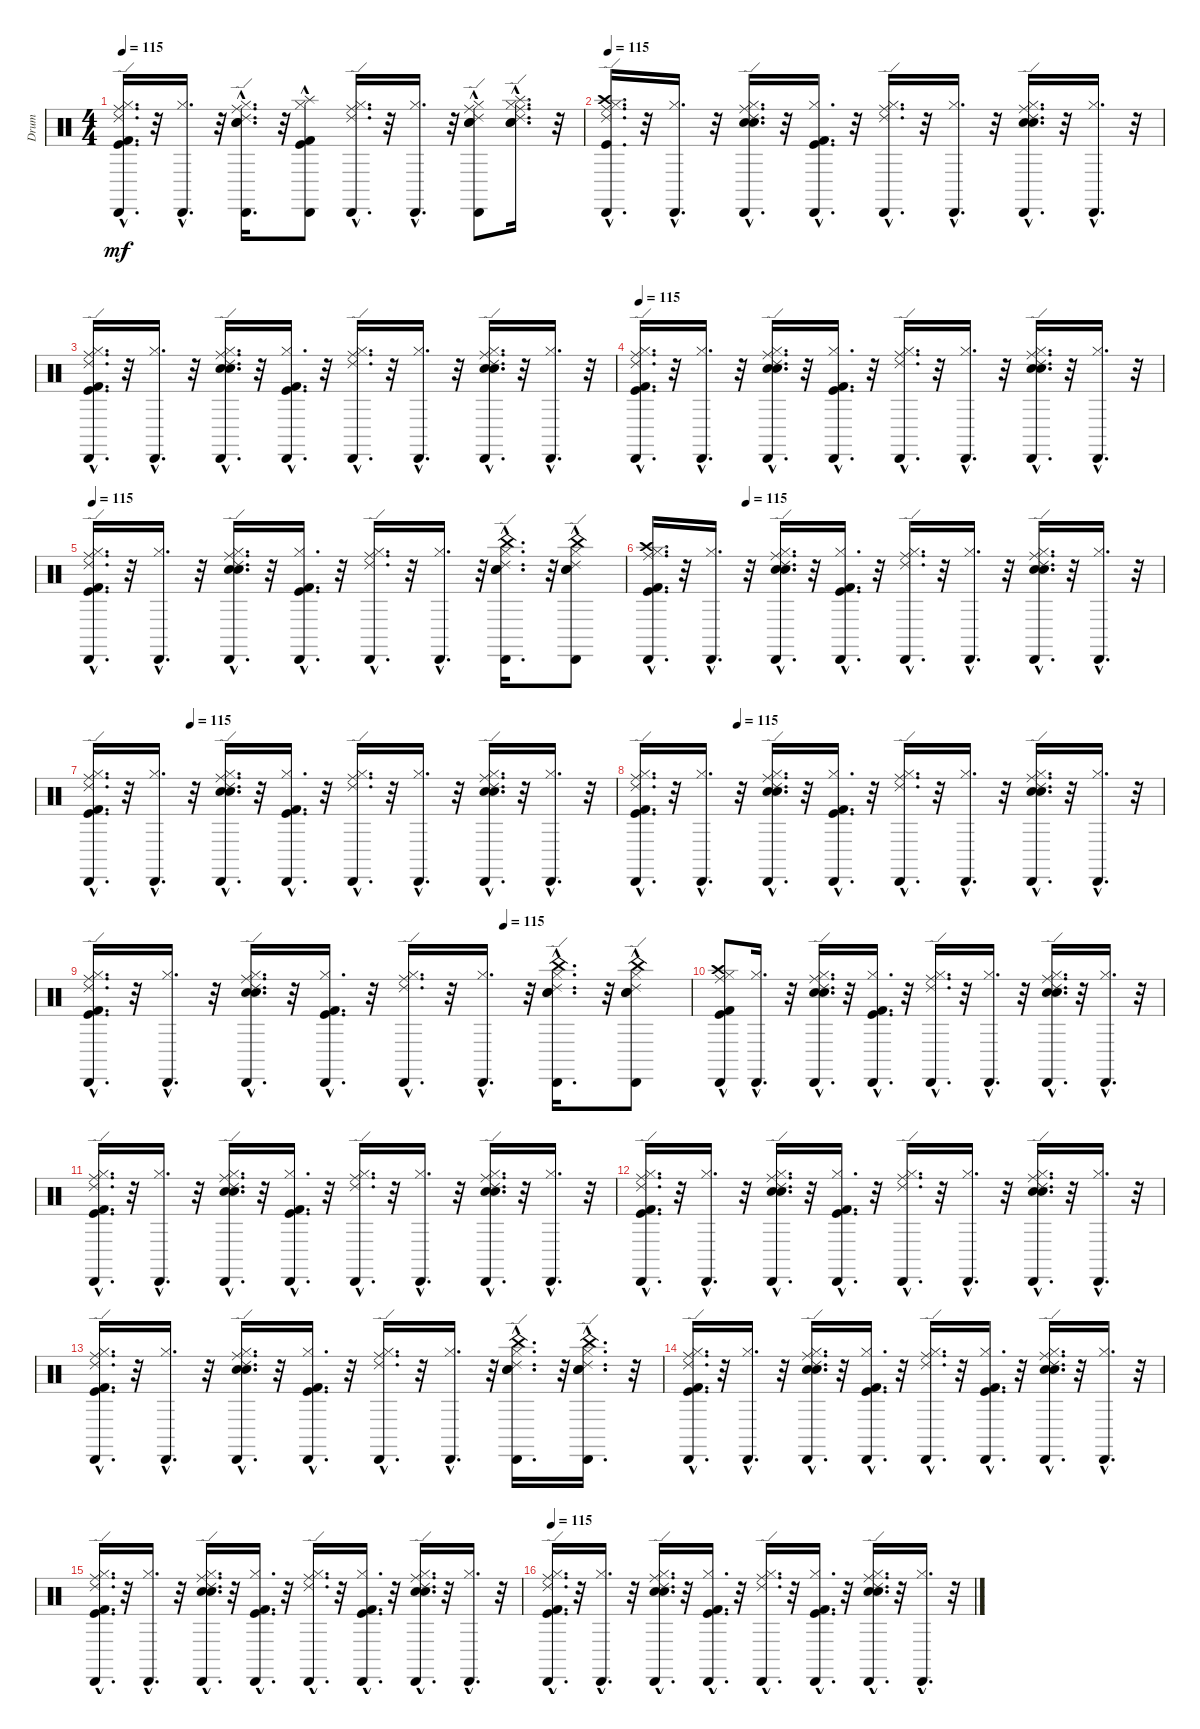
\track ("Drum" "Drum") {instrument percussion}
\staff {score}
\articulation defaults
\ts (4 4)
\tempo 115
\clef neutral
\ks c
("Ride (middle)"{hac} "Ride (edge) 2"{hac} "Hi-Hat (closed)"{hac} "Kick (hit)"{hac} "Kick (hit) 2"{hac} "Cabasa (hit)"{hac}).16{d dy mf} r.32 ("Hi-Hat (closed)"{hac} "Cabasa (hit)"{hac}).16{d} r.32 ("Ride (middle)"{hac} "Ride (edge) 2"{hac} "Hi-Hat (closed)"{hac} "Snare (hit) 2"{hac} "Electric Snare (hit)"{hac} "Cabasa (hit)"{hac}).16{d} r.32 ("Splash (hit)"{hac} "Hi-Hat (closed)"{hac} "Kick (hit)"{hac} "Kick (hit) 2" "Cabasa (hit)"{hac}).8 ("Ride (middle)"{hac} "Ride (edge) 2"{hac} "Hi-Hat (closed)"{hac} "Cabasa (hit)"{hac}).16{d} r.32 ("Hi-Hat (closed)"{hac} "Cabasa (hit)"{hac}).16{d} r.32 ("Ride (middle)"{hac} "Ride (edge) 2"{hac} "Snare (hit) 2"{hac} "Electric Snare (hit)"{hac} "Hi-Hat (closed)"{hac} "Cabasa (hit)"{hac}).8 ("Splash (hit)"{hac} "Snare (hit) 2"{hac} "Electric Snare (hit)"{hac} "Ride (edge) 2"{hac} "Ride (middle)"{hac} "Hi-Hat (closed)"{hac}).16{d} r.32 |
\tempo 115
("Hi-Hat (closed)"{hac} "Ride (edge) 2"{hac} "Kick (hit)"{hac} "Cabasa (hit)"{hac} "Ride (middle)"{hac} "Crash high (hit)"{hac}).16{d} r.32 ("Cabasa (hit)"{hac} "Hi-Hat (closed)"{hac}).16{d} r.32 ("Hi-Hat (closed)"{hac} "Cabasa (hit)"{hac} "Electric Snare (hit)"{hac} "Snare (hit) 2"{hac} "Ride (middle)"{hac} "Ride (edge) 2"{hac}).16{d} r.32 ("Kick (hit) 2"{hac} "Cabasa (hit)"{hac} "Kick (hit)"{hac} "Hi-Hat (closed)"{hac}).16{d} r.32 ("Hi-Hat (closed)"{hac} "Ride (middle)"{hac} "Cabasa (hit)"{hac} "Ride (edge) 2"{hac}).16{d} r.32 ("Hi-Hat (closed)"{hac} "Cabasa (hit)"{hac}).16{d} r.32 ("Ride (edge) 2"{hac} "Cabasa (hit)"{hac} "Hi-Hat (closed)"{hac} "Ride (middle)"{hac} "Snare (hit) 2"{hac} "Electric Snare (hit)"{hac}).16{d} r.32 ("Cabasa (hit)"{hac} "Hi-Hat (closed)"{hac}).16{d} r.32 |
("Kick (hit) 2"{hac} "Cabasa (hit)"{hac} "Ride (edge) 2"{hac} "Ride (middle)"{hac} "Kick (hit)"{hac} "Hi-Hat (closed)"{hac}).16{d} r.32 ("Cabasa (hit)"{hac} "Hi-Hat (closed)"{hac}).16{d} r.32 ("Electric Snare (hit)"{hac} "Cabasa (hit)"{hac} "Hi-Hat (closed)"{hac} "Snare (hit) 2"{hac} "Ride (edge) 2"{hac} "Ride (middle)"{hac}).16{d} r.32 ("Kick (hit)"{hac} "Kick (hit) 2"{hac} "Cabasa (hit)"{hac} "Hi-Hat (closed)"{hac}).16{d} r.32 ("Ride (middle)"{hac} "Cabasa (hit)"{hac} "Hi-Hat (closed)"{hac} "Ride (edge) 2"{hac}).16{d} r.32 ("Hi-Hat (closed)"{hac} "Cabasa (hit)"{hac}).16{d} r.32 ("Hi-Hat (closed)"{hac} "Ride (middle)"{hac} "Ride (edge) 2"{hac} "Electric Snare (hit)"{hac} "Snare (hit) 2"{hac} "Cabasa (hit)"{hac}).16{d} r.32 ("Cabasa (hit)"{hac} "Hi-Hat (closed)"{hac}).16{d} r.32 |
\tempo 115
("Hi-Hat (closed)"{hac} "Cabasa (hit)"{hac} "Kick (hit) 2"{hac} "Ride (edge) 2"{hac} "Ride (middle)"{hac} "Kick (hit)"{hac}).16{d} r.32 ("Hi-Hat (closed)"{hac} "Cabasa (hit)"{hac}).16{d} r.32 ("Ride (edge) 2"{hac} "Electric Snare (hit)"{hac} "Snare (hit) 2"{hac} "Ride (middle)"{hac} "Cabasa (hit)"{hac} "Hi-Hat (closed)"{hac}).16{d} r.32 ("Cabasa (hit)"{hac} "Kick (hit) 2"{hac} "Kick (hit)"{hac} "Hi-Hat (closed)"{hac}).16{d} r.32 ("Ride (middle)"{hac} "Ride (edge) 2"{hac} "Hi-Hat (closed)"{hac} "Cabasa (hit)"{hac}).16{d} r.32 ("Cabasa (hit)"{hac} "Hi-Hat (closed)"{hac}).16{d} r.32 ("Ride (edge) 2"{hac} "Ride (middle)"{hac} "Electric Snare (hit)"{hac} "Snare (hit) 2"{hac} "Cabasa (hit)"{hac} "Hi-Hat (closed)"{hac}).16{d} r.32 ("Cabasa (hit)"{hac} "Hi-Hat (closed)"{hac}).16{d} r.32 |
\tempo 115
("Hi-Hat (closed)"{hac} "Ride (edge) 2"{hac} "Kick (hit) 2"{hac} "Cabasa (hit)"{hac} "Kick (hit)"{hac} "Ride (middle)"{hac}).16{d} r.32 ("Cabasa (hit)"{hac} "Hi-Hat (closed)"{hac}).16{d} r.32 ("Ride (edge) 2"{hac} "Ride (middle)"{hac} "Hi-Hat (closed)"{hac} "Snare (hit) 2"{hac} "Cabasa (hit)"{hac} "Electric Snare (hit)"{hac}).16{d} r.32 ("Cabasa (hit)"{hac} "Hi-Hat (closed)"{hac} "Kick (hit)"{hac} "Kick (hit) 2"{hac}).16{d} r.32 ("Cabasa (hit)"{hac} "Ride (edge) 2"{hac} "Hi-Hat (closed)"{hac} "Ride (middle)"{hac}).16{d} r.32 ("Cabasa (hit)"{hac} "Hi-Hat (closed)"{hac}).16{d} r.32 ("Cabasa (hit)"{hac} "Snare (hit) 2"{hac} "Hi-Hat (closed)"{hac} "China (hit)"{hac} "Electric Snare (hit)"{hac} "Ride (edge) 2"{hac}).16{d} r.32 ("Electric Snare (hit)"{hac} "Hi-Hat (closed)"{hac} "China (hit)"{hac} "Ride (edge) 2"{hac} "Cabasa (hit)"{hac} "Snare (hit) 2"{hac}).8 |
\tempo (115 0.1875)
("Ride (middle)"{hac} "Kick (hit)"{hac} "Hi-Hat (closed)"{hac} "Kick (hit) 2"{hac} "Cabasa (hit)"{hac} "Crash high (hit)"{hac}).16{d} r.32 ("Cabasa (hit)"{hac} "Hi-Hat (closed)"{hac}).16{d} r.32 ("Ride (middle)"{hac} "Hi-Hat (closed)"{hac} "Electric Snare (hit)"{hac} "Ride (edge) 2"{hac} "Cabasa (hit)"{hac} "Snare (hit) 2"{hac}).16{d} r.32 ("Kick (hit)"{hac} "Hi-Hat (closed)"{hac} "Cabasa (hit)"{hac} "Kick (hit) 2"{hac}).16{d} r.32 ("Ride (middle)"{hac} "Hi-Hat (closed)"{hac} "Cabasa (hit)"{hac} "Ride (edge) 2"{hac}).16{d} r.32 ("Hi-Hat (closed)"{hac} "Cabasa (hit)"{hac}).16{d} r.32 ("Electric Snare (hit)"{hac} "Ride (middle)"{hac} "Hi-Hat (closed)"{hac} "Ride (edge) 2"{hac} "Cabasa (hit)"{hac} "Snare (hit) 2"{hac}).16{d} r.32 ("Hi-Hat (closed)"{hac} "Cabasa (hit)"{hac}).16{d} r.32 |
\tempo (115 0.1875)
("Ride (edge) 2"{hac} "Hi-Hat (closed)"{hac} "Cabasa (hit)"{hac} "Ride (middle)"{hac} "Kick (hit)"{hac} "Kick (hit) 2"{hac}).16{d} r.32 ("Hi-Hat (closed)"{hac} "Cabasa (hit)"{hac}).16{d} r.32 ("Ride (edge) 2"{hac} "Hi-Hat (closed)"{hac} "Cabasa (hit)"{hac} "Electric Snare (hit)"{hac} "Snare (hit) 2"{hac} "Ride (middle)"{hac}).16{d} r.32 ("Kick (hit)"{hac} "Hi-Hat (closed)"{hac} "Cabasa (hit)"{hac} "Kick (hit) 2"{hac}).16{d} r.32 ("Ride (edge) 2"{hac} "Cabasa (hit)"{hac} "Hi-Hat (closed)"{hac} "Ride (middle)"{hac}).16{d} r.32 ("Hi-Hat (closed)"{hac} "Cabasa (hit)"{hac}).16{d} r.32 ("Ride (middle)"{hac} "Hi-Hat (closed)"{hac} "Cabasa (hit)"{hac} "Snare (hit) 2"{hac} "Ride (edge) 2"{hac} "Electric Snare (hit)"{hac}).16{d} r.32 ("Cabasa (hit)"{hac} "Hi-Hat (closed)"{hac}).16{d} r.32 |
\tempo (115 0.1875)
("Ride (middle)"{hac} "Kick (hit) 2"{hac} "Hi-Hat (closed)"{hac} "Kick (hit)"{hac} "Ride (edge) 2"{hac} "Cabasa (hit)"{hac}).16{d} r.32 ("Cabasa (hit)"{hac} "Hi-Hat (closed)"{hac}).16{d} r.32 ("Hi-Hat (closed)"{hac} "Ride (edge) 2"{hac} "Cabasa (hit)"{hac} "Ride (middle)"{hac} "Electric Snare (hit)"{hac} "Snare (hit) 2"{hac}).16{d} r.32 ("Cabasa (hit)"{hac} "Kick (hit) 2"{hac} "Kick (hit)"{hac} "Hi-Hat (closed)"{hac}).16{d} r.32 ("Ride (middle)"{hac} "Cabasa (hit)"{hac} "Hi-Hat (closed)"{hac} "Ride (edge) 2"{hac}).16{d} r.32 ("Hi-Hat (closed)"{hac} "Cabasa (hit)"{hac}).16{d} r.32 ("Ride (edge) 2"{hac} "Cabasa (hit)"{hac} "Hi-Hat (closed)"{hac} "Ride (middle)"{hac} "Electric Snare (hit)"{hac} "Snare (hit) 2"{hac}).16{d} r.32 ("Hi-Hat (closed)"{hac} "Cabasa (hit)"{hac}).16{d} r.32 |
\tempo (115 0.6875)
("Cabasa (hit)"{hac} "Kick (hit) 2"{hac} "Kick (hit)"{hac} "Hi-Hat (closed)"{hac} "Ride (edge) 2"{hac} "Ride (middle)"{hac}).16{d} r.32 ("Hi-Hat (closed)"{hac} "Cabasa (hit)"{hac}).16{d} r.32 ("Ride (edge) 2"{hac} "Hi-Hat (closed)"{hac} "Ride (middle)"{hac} "Snare (hit) 2"{hac} "Electric Snare (hit)"{hac} "Cabasa (hit)"{hac}).16{d} r.32 ("Hi-Hat (closed)"{hac} "Kick (hit)"{hac} "Kick (hit) 2"{hac} "Cabasa (hit)"{hac}).16{d} r.32 ("Hi-Hat (closed)"{hac} "Ride (edge) 2"{hac} "Cabasa (hit)"{hac} "Ride (middle)"{hac}).16{d} r.32 ("Hi-Hat (closed)"{hac} "Cabasa (hit)"{hac}).16{d} r.32 ("Hi-Hat (closed)"{hac} "Ride (edge) 2"{hac} "Snare (hit) 2"{hac} "Cabasa (hit)"{hac} "China (hit)"{hac} "Electric Snare (hit)"{hac}).16{d} r.32 ("Ride (edge) 2"{hac} "Cabasa (hit)"{hac} "Hi-Hat (closed)"{hac} "Snare (hit) 2"{hac} "China (hit)"{hac} "Electric Snare (hit)"{hac}).8 |
("Kick (hit) 2"{hac} "Cabasa (hit)"{hac} "Kick (hit)"{hac} "Ride (middle)"{hac} "Crash high (hit)" "Hi-Hat (closed)"{hac}).8 ("Hi-Hat (closed)"{hac} "Cabasa (hit)"{hac}).16{d} r.32 ("Ride (middle)"{hac} "Cabasa (hit)"{hac} "Ride (edge) 2"{hac} "Snare (hit) 2"{hac} "Hi-Hat (closed)"{hac} "Electric Snare (hit)"{hac}).16{d} r.32 ("Cabasa (hit)"{hac} "Kick (hit) 2"{hac} "Kick (hit)"{hac} "Hi-Hat (closed)"{hac}).16{d} r.32 ("Hi-Hat (closed)"{hac} "Ride (edge) 2"{hac} "Cabasa (hit)"{hac} "Ride (middle)"{hac}).16{d} r.32 ("Cabasa (hit)"{hac} "Hi-Hat (closed)"{hac}).16{d} r.32 ("Ride (edge) 2"{hac} "Snare (hit) 2"{hac} "Cabasa (hit)"{hac} "Ride (middle)"{hac} "Electric Snare (hit)"{hac} "Hi-Hat (closed)"{hac}).16{d} r.32 ("Hi-Hat (closed)"{hac} "Cabasa (hit)"{hac}).16{d} r.32 |
("Ride (edge) 2"{hac} "Kick (hit) 2"{hac} "Cabasa (hit)"{hac} "Kick (hit)"{hac} "Hi-Hat (closed)"{hac} "Ride (middle)"{hac}).16{d} r.32 ("Hi-Hat (closed)"{hac} "Cabasa (hit)"{hac}).16{d} r.32 ("Ride (middle)"{hac} "Hi-Hat (closed)"{hac} "Snare (hit) 2"{hac} "Electric Snare (hit)"{hac} "Ride (edge) 2"{hac} "Cabasa (hit)"{hac}).16{d} r.32 ("Hi-Hat (closed)"{hac} "Kick (hit)"{hac} "Kick (hit) 2"{hac} "Cabasa (hit)"{hac}).16{d} r.32 ("Cabasa (hit)"{hac} "Ride (middle)"{hac} "Hi-Hat (closed)"{hac} "Ride (edge) 2"{hac}).16{d} r.32 ("Cabasa (hit)"{hac} "Hi-Hat (closed)"{hac}).16{d} r.32 ("Electric Snare (hit)"{hac} "Hi-Hat (closed)"{hac} "Snare (hit) 2"{hac} "Ride (edge) 2"{hac} "Cabasa (hit)"{hac} "Ride (middle)"{hac}).16{d} r.32 ("Cabasa (hit)"{hac} "Hi-Hat (closed)"{hac}).16{d} r.32 |
("Kick (hit)"{hac} "Ride (middle)"{hac} "Ride (edge) 2"{hac} "Cabasa (hit)"{hac} "Kick (hit) 2"{hac} "Hi-Hat (closed)"{hac}).16{d} r.32 ("Cabasa (hit)"{hac} "Hi-Hat (closed)"{hac}).16{d} r.32 ("Snare (hit) 2"{hac} "Hi-Hat (closed)"{hac} "Ride (edge) 2"{hac} "Cabasa (hit)"{hac} "Electric Snare (hit)"{hac} "Ride (middle)"{hac}).16{d} r.32 ("Hi-Hat (closed)"{hac} "Kick (hit)"{hac} "Kick (hit) 2"{hac} "Cabasa (hit)"{hac}).16{d} r.32 ("Ride (middle)"{hac} "Hi-Hat (closed)"{hac} "Cabasa (hit)"{hac} "Ride (edge) 2"{hac}).16{d} r.32 ("Cabasa (hit)"{hac} "Hi-Hat (closed)"{hac}).16{d} r.32 ("Ride (middle)"{hac} "Electric Snare (hit)"{hac} "Cabasa (hit)"{hac} "Snare (hit) 2"{hac} "Ride (edge) 2"{hac} "Hi-Hat (closed)"{hac}).16{d} r.32 ("Cabasa (hit)"{hac} "Hi-Hat (closed)"{hac}).16{d} r.32 |
("Kick (hit)"{hac} "Kick (hit) 2"{hac} "Ride (edge) 2"{hac} "Hi-Hat (closed)"{hac} "Ride (middle)"{hac} "Cabasa (hit)"{hac}).16{d} r.32 ("Hi-Hat (closed)"{hac} "Cabasa (hit)"{hac}).16{d} r.32 ("Snare (hit) 2"{hac} "Hi-Hat (closed)"{hac} "Cabasa (hit)"{hac} "Electric Snare (hit)"{hac} "Ride (edge) 2"{hac} "Ride (middle)"{hac}).16{d} r.32 ("Cabasa (hit)"{hac} "Kick (hit) 2"{hac} "Hi-Hat (closed)"{hac} "Kick (hit)"{hac}).16{d} r.32 ("Cabasa (hit)"{hac} "Ride (middle)"{hac} "Ride (edge) 2"{hac} "Hi-Hat (closed)"{hac}).16{d} r.32 ("Hi-Hat (closed)"{hac} "Cabasa (hit)"{hac}).16{d} r.32 ("Ride (edge) 2"{hac} "Hi-Hat (closed)"{hac} "Electric Snare (hit)"{hac} "Snare (hit) 2"{hac} "Cabasa (hit)"{hac} "China (hit)"{hac}).16{d} r.32 ("Ride (edge) 2"{hac} "Hi-Hat (closed)"{hac} "Snare (hit) 2"{hac} "China (hit)"{hac} "Cabasa (hit)"{hac} "Electric Snare (hit)"{hac}).16{d} r.32 |
("Ride (middle)"{hac} "Kick (hit)"{hac} "Kick (hit) 2"{hac} "Cabasa (hit)"{hac} "Hi-Hat (closed)"{hac} "Ride (edge) 2"{hac}).16{d} r.32 ("Hi-Hat (closed)"{hac} "Cabasa (hit)"{hac}).16{d} r.32 ("Ride (middle)"{hac} "Ride (edge) 2"{hac} "Snare (hit) 2"{hac} "Cabasa (hit)"{hac} "Hi-Hat (closed)"{hac} "Electric Snare (hit)"{hac}).16{d} r.32 ("Kick (hit) 2"{hac} "Kick (hit)"{hac} "Cabasa (hit)"{hac} "Hi-Hat (closed)"{hac}).16{d} r.32 ("Ride (edge) 2"{hac} "Hi-Hat (closed)"{hac} "Cabasa (hit)"{hac} "Ride (middle)"{hac}).16{d} r.32 ("Kick (hit) 2"{hac} "Kick (hit)"{hac} "Cabasa (hit)"{hac} "Hi-Hat (closed)"{hac}).16{d} r.32 ("Ride (edge) 2"{hac} "Snare (hit) 2"{hac} "Ride (middle)"{hac} "Electric Snare (hit)"{hac} "Cabasa (hit)"{hac} "Hi-Hat (closed)"{hac}).16{d} r.32 ("Hi-Hat (closed)"{hac} "Cabasa (hit)"{hac}).16{d} r.32 |
("Kick (hit)"{hac} "Kick (hit) 2"{hac} "Ride (edge) 2"{hac} "Cabasa (hit)"{hac} "Ride (middle)"{hac} "Hi-Hat (closed)"{hac}).16{d} r.32 ("Hi-Hat (closed)"{hac} "Cabasa (hit)"{hac}).16{d} r.32 ("Ride (middle)"{hac} "Snare (hit) 2"{hac} "Electric Snare (hit)"{hac} "Hi-Hat (closed)"{hac} "Ride (edge) 2"{hac} "Cabasa (hit)"{hac}).16{d} r.32 ("Kick (hit)"{hac} "Kick (hit) 2"{hac} "Hi-Hat (closed)"{hac} "Cabasa (hit)"{hac}).16{d} r.32 ("Ride (middle)"{hac} "Cabasa (hit)"{hac} "Hi-Hat (closed)"{hac} "Ride (edge) 2"{hac}).16{d} r.32 ("Kick (hit) 2"{hac} "Kick (hit)"{hac} "Cabasa (hit)"{hac} "Hi-Hat (closed)"{hac}).16{d} r.32 ("Electric Snare (hit)"{hac} "Hi-Hat (closed)"{hac} "Ride (edge) 2"{hac} "Snare (hit) 2"{hac} "Cabasa (hit)"{hac} "Ride (middle)"{hac}).16{d} r.32 ("Cabasa (hit)"{hac} "Hi-Hat (closed)"{hac}).16{d} r.32 |
\tempo 115
("Ride (edge) 2"{hac} "Ride (middle)"{hac} "Kick (hit)"{hac} "Kick (hit) 2"{hac} "Hi-Hat (closed)"{hac} "Cabasa (hit)"{hac}).16{d} r.32 ("Cabasa (hit)"{hac} "Hi-Hat (closed)"{hac}).16{d} r.32 ("Snare (hit) 2"{hac} "Ride (edge) 2"{hac} "Cabasa (hit)"{hac} "Hi-Hat (closed)"{hac} "Electric Snare (hit)"{hac} "Ride (middle)"{hac}).16{d} r.32 ("Kick (hit)"{hac} "Hi-Hat (closed)"{hac} "Kick (hit) 2"{hac} "Cabasa (hit)"{hac}).16{d} r.32 ("Hi-Hat (closed)"{hac} "Ride (middle)"{hac} "Cabasa (hit)"{hac} "Ride (edge) 2"{hac}).16{d} r.32 ("Kick (hit) 2"{hac} "Kick (hit)"{hac} "Cabasa (hit)"{hac} "Hi-Hat (closed)"{hac}).16{d} r.32 ("Ride (middle)"{hac} "Electric Snare (hit)"{hac} "Cabasa (hit)"{hac} "Ride (edge) 2"{hac} "Snare (hit) 2"{hac} "Hi-Hat (closed)"{hac}).16{d} r.32 ("Hi-Hat (closed)"{hac} "Cabasa (hit)"{hac}).16{d} r.32
